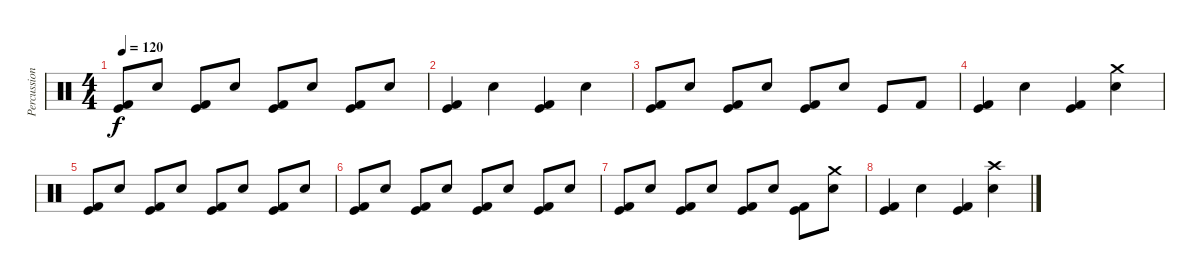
\track ("Percussion" "Percussion") {instrument percussion}
\staff {score}
\articulation defaults
\ts (4 4)
\tempo 120
\clef neutral
\ks c
("Kick (hit)" "Kick (hit) 2").8{dy f} "Metronome (bell)".8 ("Kick (hit)" "Kick (hit) 2").8 "Metronome (bell)".8 ("Kick (hit)" "Kick (hit) 2").8 "Metronome (bell)".8 ("Kick (hit)" "Kick (hit) 2").8 "Metronome (bell)".8 |
("Kick (hit)" "Kick (hit) 2").4 "Metronome (bell)".4 ("Kick (hit)" "Kick (hit) 2").4 "Metronome (bell)".4 |
("Kick (hit)" "Kick (hit) 2").8 "Metronome (bell)".8 ("Kick (hit)" "Kick (hit) 2").8 "Metronome (bell)".8 ("Kick (hit)" "Kick (hit) 2").8 "Metronome (bell)".8 "Kick (hit)".8 "Kick (hit) 2".8 |
("Kick (hit)" "Kick (hit) 2").4 "Metronome (bell)".4 ("Kick (hit)" "Kick (hit) 2").4 ("Metronome (bell)" "Crash medium (hit)").4 |
("Kick (hit)" "Kick (hit) 2").8 "Metronome (bell)".8 ("Kick (hit)" "Kick (hit) 2").8 "Metronome (bell)".8 ("Kick (hit)" "Kick (hit) 2").8 "Metronome (bell)".8 ("Kick (hit)" "Kick (hit) 2").8 "Metronome (bell)".8 |
("Kick (hit)" "Kick (hit) 2").8 "Metronome (bell)".8 ("Kick (hit)" "Kick (hit) 2").8 "Metronome (bell)".8 ("Kick (hit)" "Kick (hit) 2").8 "Metronome (bell)".8 ("Kick (hit)" "Kick (hit) 2").8 "Metronome (bell)".8 |
("Kick (hit)" "Kick (hit) 2").8 "Metronome (bell)".8 ("Kick (hit)" "Kick (hit) 2").8 "Metronome (bell)".8 ("Kick (hit)" "Kick (hit) 2").8 "Metronome (bell)".8 ("Kick (hit)" "Kick (hit) 2").8 ("Metronome (bell)" "Crash medium (hit)").8 |
("Kick (hit)" "Kick (hit) 2").4 "Metronome (bell)".4 ("Kick (hit)" "Kick (hit) 2").4 ("Metronome (bell)" "Crash high (hit)").4
